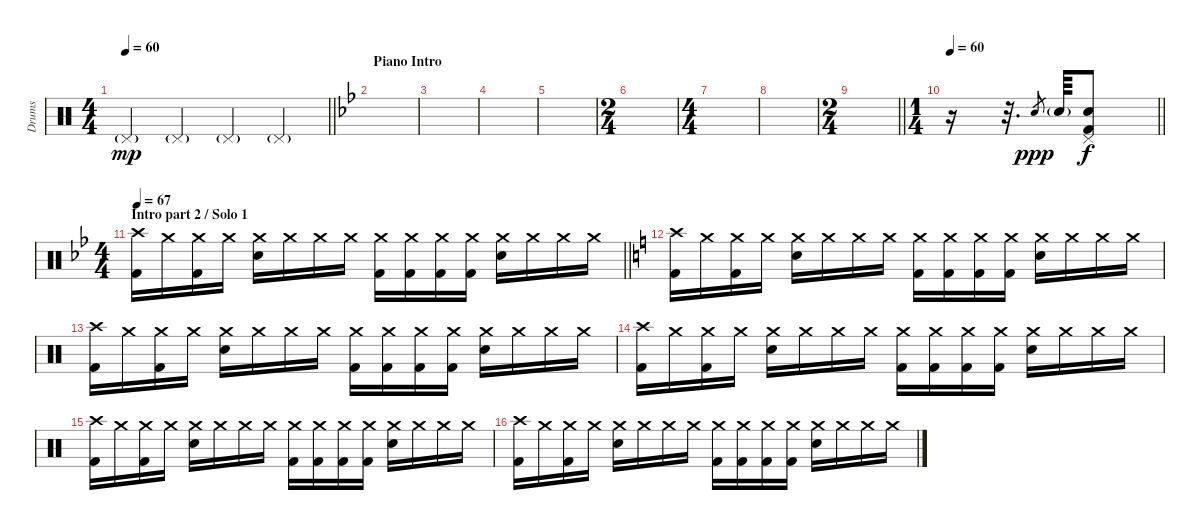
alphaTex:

\track ("Drums" "Drums") {instrument percussion}
\staff {score}
\articulation defaults
\ts (4 4)
\tempo 60
\clef neutral
\barLineRight lightlight
\ks c "Pedal Hi-Hat (hit)"{g}.4{dy mp} "Pedal Hi-Hat (hit)"{g}.4 "Pedal Hi-Hat (hit)"{g}.4 "Pedal Hi-Hat (hit)"{g}.4
|
\section ("" "Piano Intro")
\ks bb
|
|
|
|
\ts (2 4)
|
\ts (4 4)
|
|
\ts (2 4)
\barLineRight lightlight
|
\ts (1 4)
\tempo 67
\tempo 60
\barLineRight lightlight
r.16 r.32{d} "Electric Snare (hit)".8{gr dy ppp} "Electric Snare (hit)"{g}.64 ("Pedal Hi-Hat (hit)" "Electric Snare (hit)" "Kick (hit) 2").8{dy f} |
\ts (4 4)
\section ("" "Intro part 2 / Solo 1")
\tempo 67
\barLineRight lightlight
("Crash high (hit)" "Kick (hit) 2").16 "Crash medium (hit)".16 ("Crash medium (hit)" "Kick (hit) 2").16 "Crash medium (hit)".16 ("Crash medium (hit)" "Electric Snare (hit)").16 "Crash medium (hit)".16 "Crash medium (hit)".16 "Crash medium (hit)".16 ("Crash medium (hit)" "Kick (hit) 2").16 ("Crash medium (hit)" "Kick (hit) 2").16 ("Crash medium (hit)" "Kick (hit) 2").16 ("Crash medium (hit)" "Kick (hit) 2").16 ("Crash medium (hit)" "Electric Snare (hit)").16 "Crash medium (hit)".16 "Crash medium (hit)".16 "Crash medium (hit)".16 |
\ks c
("Crash high (hit)" "Kick (hit) 2").16 "Crash medium (hit)".16 ("Crash medium (hit)" "Kick (hit) 2").16 "Crash medium (hit)".16 ("Crash medium (hit)" "Electric Snare (hit)").16 "Crash medium (hit)".16 "Crash medium (hit)".16 "Crash medium (hit)".16 ("Crash medium (hit)" "Kick (hit) 2").16 ("Crash medium (hit)" "Kick (hit) 2").16 ("Crash medium (hit)" "Kick (hit) 2").16 ("Crash medium (hit)" "Kick (hit) 2").16 ("Crash medium (hit)" "Electric Snare (hit)").16 "Crash medium (hit)".16 "Crash medium (hit)".16 "Crash medium (hit)".16 |
("Crash high (hit)" "Kick (hit) 2").16 "Crash medium (hit)".16 ("Crash medium (hit)" "Kick (hit) 2").16 "Crash medium (hit)".16 ("Crash medium (hit)" "Electric Snare (hit)").16 "Crash medium (hit)".16 "Crash medium (hit)".16 "Crash medium (hit)".16 ("Crash medium (hit)" "Kick (hit) 2").16 ("Crash medium (hit)" "Kick (hit) 2").16 ("Crash medium (hit)" "Kick (hit) 2").16 ("Crash medium (hit)" "Kick (hit) 2").16 ("Crash medium (hit)" "Electric Snare (hit)").16 "Crash medium (hit)".16 "Crash medium (hit)".16 "Crash medium (hit)".16 |
("Crash high (hit)" "Kick (hit) 2").16 "Crash medium (hit)".16 ("Crash medium (hit)" "Kick (hit) 2").16 "Crash medium (hit)".16 ("Crash medium (hit)" "Electric Snare (hit)").16 "Crash medium (hit)".16 "Crash medium (hit)".16 "Crash medium (hit)".16 ("Crash medium (hit)" "Kick (hit) 2").16 ("Crash medium (hit)" "Kick (hit) 2").16 ("Crash medium (hit)" "Kick (hit) 2").16 ("Crash medium (hit)" "Kick (hit) 2").16 ("Crash medium (hit)" "Electric Snare (hit)").16 "Crash medium (hit)".16 "Crash medium (hit)".16 "Crash medium (hit)".16 |
("Crash high (hit)" "Kick (hit) 2").16 "Crash medium (hit)".16 ("Crash medium (hit)" "Kick (hit) 2").16 "Crash medium (hit)".16 ("Crash medium (hit)" "Electric Snare (hit)").16 "Crash medium (hit)".16 "Crash medium (hit)".16 "Crash medium (hit)".16 ("Crash medium (hit)" "Kick (hit) 2").16 ("Crash medium (hit)" "Kick (hit) 2").16 ("Crash medium (hit)" "Kick (hit) 2").16 ("Crash medium (hit)" "Kick (hit) 2").16 ("Crash medium (hit)" "Electric Snare (hit)").16 "Crash medium (hit)".16 "Crash medium (hit)".16 "Crash medium (hit)".16 |
("Crash high (hit)" "Kick (hit) 2").16 "Crash medium (hit)".16 ("Crash medium (hit)" "Kick (hit) 2").16 "Crash medium (hit)".16 ("Crash medium (hit)" "Electric Snare (hit)").16 "Crash medium (hit)".16 "Crash medium (hit)".16 "Crash medium (hit)".16 ("Crash medium (hit)" "Kick (hit) 2").16 ("Crash medium (hit)" "Kick (hit) 2").16 ("Crash medium (hit)" "Kick (hit) 2").16 ("Crash medium (hit)" "Kick (hit) 2").16 ("Crash medium (hit)" "Electric Snare (hit)").16 "Crash medium (hit)".16 "Crash medium (hit)".16 "Crash medium (hit)".16
